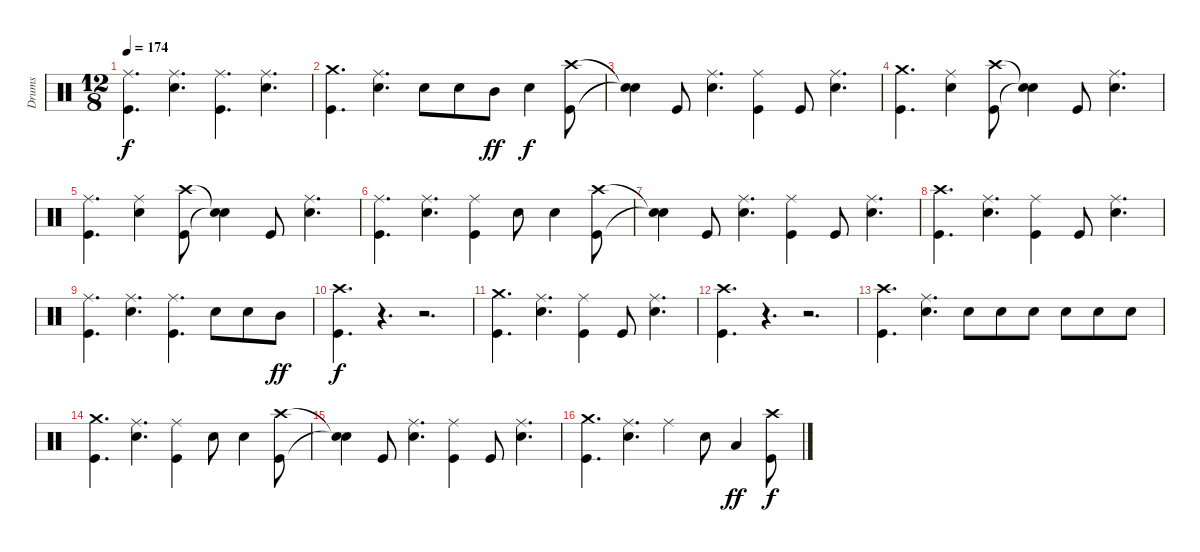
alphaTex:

\track ("Drums" "Drums") {instrument percussion}
\staff {score}
\articulation defaults
\ts (12 8)
\tempo 174
\clef neutral
\ks c
("Ride (middle)" "Kick (hit)").4{d dy f} ("Ride (middle)" "Snare (hit) 2").4{d} ("Ride (middle)" "Kick (hit)").4{d} ("Ride (middle)" "Snare (hit) 2").4{d} |
("Crash medium (hit)" "Kick (hit)").4{d} ("Ride (middle)" "Snare (hit) 2").4{d} "Snare (hit) 2".8 "Snare (hit) 2".8 "Mid Tom (hit)".8{dy ff} "Snare (hit) 2".4{dy f} ("Crash high (hit)" "Kick (hit)").8 |
("Snare (hit)"{t} "Snare (hit)"{t}).4 "Kick (hit)".8 ("Ride (middle)" "Snare (hit) 2").4{d} ("Ride (middle)" "Kick (hit)").4 "Kick (hit)".8 ("Ride (middle)" "Snare (hit) 2").4{d} |
("Crash medium (hit)" "Kick (hit)").4{d} ("Ride (middle)" "Snare (hit) 2").4 ("Crash high (hit)" "Kick (hit)").8 ("Snare (hit)"{t} "Snare (hit)"{t}).4 "Kick (hit)".8 ("Ride (middle)" "Snare (hit) 2").4{d} |
("Ride (middle)" "Kick (hit)").4{d} ("Ride (middle)" "Snare (hit) 2").4 ("Crash high (hit)" "Kick (hit)").8 ("Snare (hit)"{t} "Snare (hit)"{t}).4 "Kick (hit)".8 ("Ride (middle)" "Snare (hit) 2").4{d} |
("Ride (middle)" "Kick (hit)").4{d} ("Ride (middle)" "Snare (hit) 2").4{d} ("Ride (middle)" "Kick (hit)").4 "Snare (hit) 2".8 "Snare (hit) 2".4 ("Crash high (hit)" "Kick (hit)").8 |
("Snare (hit)"{t} "Snare (hit)"{t}).4 "Kick (hit)".8 ("Ride (middle)" "Snare (hit) 2").4{d} ("Ride (middle)" "Kick (hit)").4 "Kick (hit)".8 ("Ride (middle)" "Snare (hit) 2").4{d} |
("Crash high (hit)" "Kick (hit)").4{d} ("Ride (middle)" "Snare (hit) 2").4{d} ("Ride (middle)" "Kick (hit)").4 "Kick (hit)".8 ("Ride (middle)" "Snare (hit) 2").4{d} |
("Ride (middle)" "Kick (hit)").4{d} ("Ride (middle)" "Snare (hit) 2").4{d} ("Ride (middle)" "Kick (hit)").4{d} "Snare (hit) 2".8 "Snare (hit) 2".8 "Mid Tom (hit)".8{dy ff} |
("Crash high (hit)" "Kick (hit)").4{d dy f} r.4{d} r.2{d} |
("Crash medium (hit)" "Kick (hit)").4{d} ("Ride (middle)" "Snare (hit) 2").4{d} ("Ride (middle)" "Kick (hit)").4 "Kick (hit)".8 ("Ride (middle)" "Snare (hit) 2").4{d} |
("Crash high (hit)" "Kick (hit)").4{d} r.4{d} r.2{d} |
("Crash high (hit)" "Kick (hit)").4{d} ("Ride (middle)" "Snare (hit) 2").4{d} "Snare (hit) 2".8 "Snare (hit) 2".8 "Snare (hit) 2".8 "Snare (hit) 2".8 "Snare (hit) 2".8 "Snare (hit) 2".8 |
("Crash medium (hit)" "Kick (hit)").4{d} ("Ride (middle)" "Snare (hit) 2").4{d} ("Ride (middle)" "Kick (hit)").4 "Snare (hit) 2".8 "Snare (hit) 2".4 ("Crash high (hit)" "Kick (hit)").8 |
("Snare (hit)"{t} "Snare (hit)"{t}).4 "Kick (hit)".8 ("Ride (middle)" "Snare (hit) 2").4{d} ("Ride (middle)" "Kick (hit)").4 "Kick (hit)".8 ("Ride (middle)" "Snare (hit) 2").4{d} |
("Crash medium (hit)" "Kick (hit)").4{d} ("Ride (middle)" "Snare (hit) 2").4{d} "Ride (middle)".4 "Snare (hit) 2".8 "Low Tom (hit)".4{dy ff} ("Crash high (hit)" "Kick (hit)").8{dy f}
